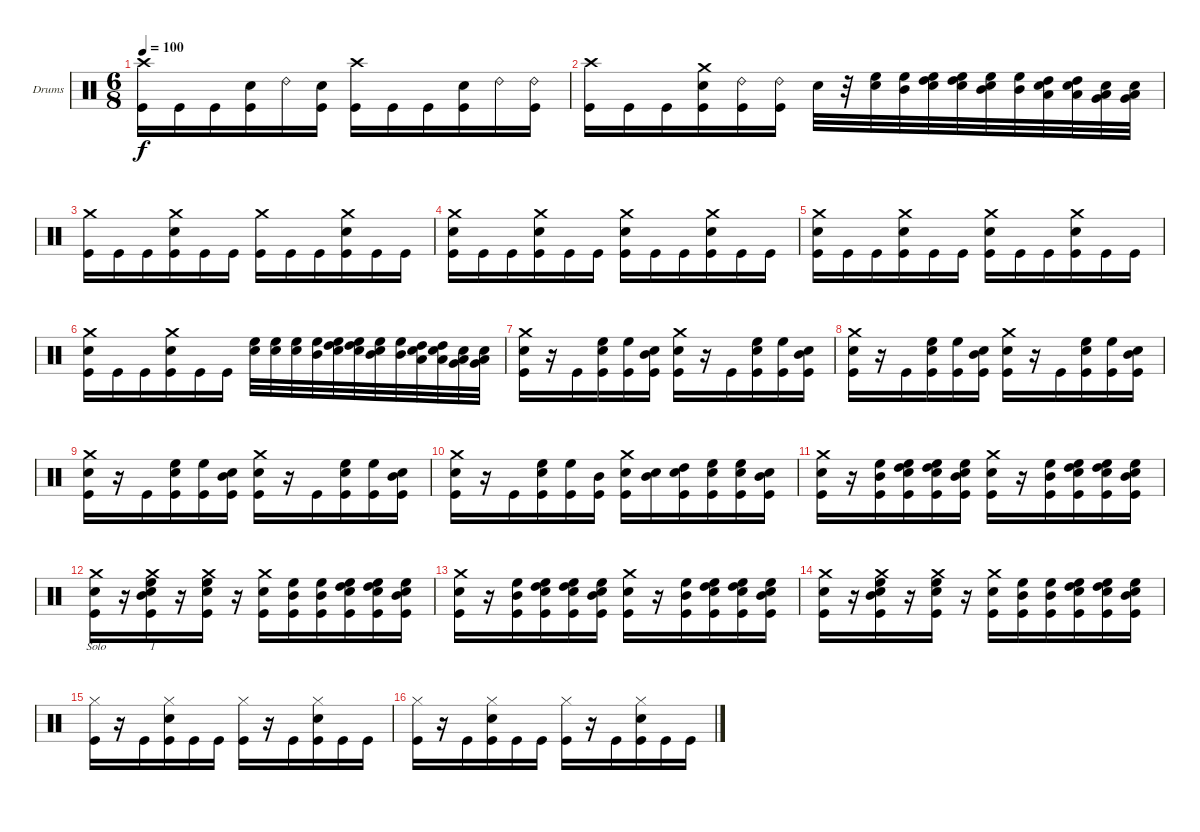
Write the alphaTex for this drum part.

\defaultSystemsLayout 4
\bracketExtendMode groupsimilarinstruments
\firstSystemTrackNameOrientation horizontal
\otherSystemsTrackNameOrientation horizontal
\track ("Drumkit" "Drums") {instrument percussion}
\staff {score}
\articulation defaults
\ts (6 8)
\tempo 100
\clef neutral
\scale
0.333333
\ks c
("Crash high (hit)" "Kick (hit)").16{lyrics (0 "") lyrics (1 "") lyrics (2 "") lyrics (3 "") lyrics (4 "") dy f} "Kick (hit)".16{lyrics (0 "") lyrics (1 "") lyrics (2 "") lyrics (3 "") lyrics (4 "")} "Kick (hit)".16 ("Snare (hit) 2" "Kick (hit)").16 "Ride (bell) 2".16 ("Snare (hit) 2" "Kick (hit)").16 ("Crash high (hit)" "Kick (hit)").16 "Kick (hit)".16 "Kick (hit)".16 ("Snare (hit) 2" "Kick (hit)").16 "Ride (bell) 2".16 ("Ride (bell) 2" "Kick (hit)").16 |
\scale
0.333333 ("Crash high (hit)" "Kick (hit)").16{lyrics (0 "") lyrics (1 "") lyrics (2 "") lyrics (3 "") lyrics (4 "")} "Kick (hit)".16{lyrics (0 "") lyrics (1 "") lyrics (2 "") lyrics (3 "") lyrics (4 "")} "Kick (hit)".16 ("Crash medium (hit)" "Snare (hit) 2" "Kick (hit)").16 ("Ride (bell) 2" "Kick (hit)").16 ("Ride (bell) 2" "Kick (hit)").16 "Snare (hit) 2".32 r.32 ("High Floor Tom (hit)" "Snare (hit) 2").32 ("High Floor Tom (hit)" "Mid Tom (hit)").32 ("High Floor Tom (hit)" "High Tom (hit)" "Snare (hit) 2").32 ("High Floor Tom (hit)" "High Tom (hit)" "Snare (hit) 2").32 ("High Floor Tom (hit)" "Mid Tom (hit)" "Snare (hit) 2").32 ("High Floor Tom (hit)" "Mid Tom (hit)").32 ("High Tom (hit)" "Low Tom (hit)" "Snare (hit) 2").32 ("High Tom (hit)" "Low Tom (hit)" "Snare (hit) 2").32 ("Low Tom (hit)" "Very Low Tom (hit)" "Snare (hit) 2").32 ("Low Tom (hit)" "Very Low Tom (hit)" "Snare (hit) 2").32 |
\scale
0.333333 ("Crash medium (hit)" "Kick (hit)").16{lyrics (0 "") lyrics (1 "") lyrics (2 "") lyrics (3 "") lyrics (4 "")} "Kick (hit)".16{lyrics (0 "") lyrics (1 "") lyrics (2 "") lyrics (3 "") lyrics (4 "")} "Kick (hit)".16 ("Crash medium (hit)" "Snare (hit) 2" "Kick (hit)").16 "Kick (hit)".16 "Kick (hit)".16 ("Crash medium (hit)" "Kick (hit)").16 "Kick (hit)".16 "Kick (hit)".16 ("Crash medium (hit)" "Snare (hit) 2" "Kick (hit)").16 "Kick (hit)".16 "Kick (hit)".16 |
\scale
0.333333 ("Crash medium (hit)" "Snare (hit) 2" "Kick (hit)").16{lyrics (0 "") lyrics (1 "") lyrics (2 "") lyrics (3 "") lyrics (4 "")} "Kick (hit)".16{lyrics (0 "") lyrics (1 "") lyrics (2 "") lyrics (3 "") lyrics (4 "")} "Kick (hit)".16 ("Crash medium (hit)" "Snare (hit) 2" "Kick (hit)").16 "Kick (hit)".16 "Kick (hit)".16 ("Crash medium (hit)" "Snare (hit) 2" "Kick (hit)").16 "Kick (hit)".16 "Kick (hit)".16 ("Crash medium (hit)" "Snare (hit) 2" "Kick (hit)").16 "Kick (hit)".16 "Kick (hit)".16 |
\scale
0.333333 ("Crash medium (hit)" "Snare (hit) 2" "Kick (hit)").16{lyrics (0 "") lyrics (1 "") lyrics (2 "") lyrics (3 "") lyrics (4 "")} "Kick (hit)".16{lyrics (0 "") lyrics (1 "") lyrics (2 "") lyrics (3 "") lyrics (4 "")} "Kick (hit)".16 ("Crash medium (hit)" "Snare (hit) 2" "Kick (hit)").16 "Kick (hit)".16 "Kick (hit)".16 ("Crash medium (hit)" "Snare (hit) 2" "Kick (hit)").16 "Kick (hit)".16 "Kick (hit)".16 ("Crash medium (hit)" "Snare (hit) 2" "Kick (hit)").16 "Kick (hit)".16 "Kick (hit)".16 |
\scale
0.333333 ("Crash medium (hit)" "Snare (hit) 2" "Kick (hit)").16{lyrics (0 "") lyrics (1 "") lyrics (2 "") lyrics (3 "") lyrics (4 "")} "Kick (hit)".16{lyrics (0 "") lyrics (1 "") lyrics (2 "") lyrics (3 "") lyrics (4 "")} "Kick (hit)".16 ("Crash medium (hit)" "Snare (hit) 2" "Kick (hit)").16 "Kick (hit)".16 "Kick (hit)".16 ("High Floor Tom (hit)" "Snare (hit) 2").32 ("High Floor Tom (hit)" "Snare (hit) 2").32 ("High Floor Tom (hit)" "Snare (hit) 2").32 ("High Floor Tom (hit)" "Mid Tom (hit)").32 ("High Floor Tom (hit)" "High Tom (hit)" "Snare (hit) 2").32 ("High Floor Tom (hit)" "High Tom (hit)" "Snare (hit) 2").32 ("High Floor Tom (hit)" "Mid Tom (hit)" "Snare (hit) 2").32 ("High Floor Tom (hit)" "Mid Tom (hit)").32 ("High Tom (hit)" "Low Tom (hit)" "Snare (hit) 2").32 ("High Tom (hit)" "Low Tom (hit)" "Snare (hit) 2").32 ("Low Tom (hit)" "Very Low Tom (hit)" "Snare (hit) 2").32 ("Low Tom (hit)" "Very Low Tom (hit)" "Snare (hit) 2").32 |
\scale
0.333333 ("Kick (hit)" "Snare (hit) 2" "Crash medium (hit)").16{lyrics (0 "") lyrics (1 "") lyrics (2 "") lyrics (3 "") lyrics (4 "")} r.16 "Kick (hit)".16{lyrics (0 "") lyrics (1 "") lyrics (2 "") lyrics (3 "") lyrics (4 "")} ("Kick (hit)" "High Floor Tom (hit)" "Snare (hit) 2").16 ("Kick (hit)" "High Floor Tom (hit)").16 ("Kick (hit)" "Snare (hit) 2" "Mid Tom (hit)").16 ("Kick (hit)" "Snare (hit) 2" "Crash medium (hit)").16 r.16 "Kick (hit)".16 ("Kick (hit)" "High Floor Tom (hit)" "Snare (hit) 2").16 ("Kick (hit)" "High Floor Tom (hit)").16 ("Kick (hit)" "Snare (hit) 2" "Mid Tom (hit)").16 |
\scale
0.333333 ("Kick (hit)" "Snare (hit) 2" "Crash medium (hit)").16{lyrics (0 "") lyrics (1 "") lyrics (2 "") lyrics (3 "") lyrics (4 "")} r.16 "Kick (hit)".16{lyrics (0 "") lyrics (1 "") lyrics (2 "") lyrics (3 "") lyrics (4 "")} ("Kick (hit)" "High Floor Tom (hit)" "Snare (hit) 2").16 ("Kick (hit)" "High Floor Tom (hit)").16 ("Kick (hit)" "Snare (hit) 2" "Mid Tom (hit)").16 ("Kick (hit)" "Snare (hit) 2" "Crash medium (hit)").16 r.16 "Kick (hit)".16 ("Kick (hit)" "High Floor Tom (hit)" "Snare (hit) 2").16 ("Kick (hit)" "High Floor Tom (hit)").16 ("Kick (hit)" "Snare (hit) 2" "Mid Tom (hit)").16 |
\scale
0.333333 ("Kick (hit)" "Snare (hit) 2" "Crash medium (hit)").16{lyrics (0 "") lyrics (1 "") lyrics (2 "") lyrics (3 "") lyrics (4 "")} r.16 "Kick (hit)".16{lyrics (0 "") lyrics (1 "") lyrics (2 "") lyrics (3 "") lyrics (4 "")} ("Kick (hit)" "High Floor Tom (hit)" "Snare (hit) 2").16 ("Kick (hit)" "High Floor Tom (hit)").16 ("Kick (hit)" "Snare (hit) 2" "Mid Tom (hit)").16 ("Kick (hit)" "Snare (hit) 2" "Crash medium (hit)").16 r.16 "Kick (hit)".16 ("Kick (hit)" "High Floor Tom (hit)" "Snare (hit) 2").16 ("Kick (hit)" "High Floor Tom (hit)").16 ("Kick (hit)" "Snare (hit) 2" "Mid Tom (hit)").16 |
\scale
0.333333 ("Kick (hit)" "Snare (hit) 2" "Crash medium (hit)").16{lyrics (0 "") lyrics (1 "") lyrics (2 "") lyrics (3 "") lyrics (4 "")} r.16 "Kick (hit)".16{lyrics (0 "") lyrics (1 "") lyrics (2 "") lyrics (3 "") lyrics (4 "")} ("Kick (hit)" "High Floor Tom (hit)" "Snare (hit) 2").16 ("Kick (hit)" "High Floor Tom (hit)").16 ("Kick (hit)" "Mid Tom (hit)").16 ("Kick (hit)" "Snare (hit) 2" "Crash medium (hit)").16 ("Mid Tom (hit)" "Snare (hit) 2").16 ("Kick (hit)" "High Tom (hit)" "Snare (hit) 2").16 ("Kick (hit)" "High Floor Tom (hit)" "Snare (hit) 2").16 ("Kick (hit)" "High Floor Tom (hit)" "Snare (hit) 2").16 ("Kick (hit)" "Mid Tom (hit)" "Snare (hit) 2").16 |
\scale
0.333333 ("Kick (hit)" "Snare (hit) 2" "Crash medium (hit)").16{lyrics (0 "") lyrics (1 "") lyrics (2 "") lyrics (3 "") lyrics (4 "")} r.16 ("Kick (hit)" "High Floor Tom (hit)" "Mid Tom (hit)").16{lyrics (0 "") lyrics (1 "") lyrics (2 "") lyrics (3 "") lyrics (4 "")} ("Kick (hit)" "High Floor Tom (hit)" "High Tom (hit)" "Snare (hit) 2").16 ("Kick (hit)" "High Floor Tom (hit)" "High Tom (hit)" "Snare (hit) 2").16 ("Kick (hit)" "High Floor Tom (hit)" "Mid Tom (hit)" "Snare (hit) 2").16 ("Kick (hit)" "Snare (hit) 2" "Crash medium (hit)").16 r.16 ("Kick (hit)" "High Floor Tom (hit)" "Mid Tom (hit)").16 ("Kick (hit)" "High Floor Tom (hit)" "High Tom (hit)" "Snare (hit) 2").16 ("Kick (hit)" "High Floor Tom (hit)" "High Tom (hit)" "Snare (hit) 2").16 ("Kick (hit)" "High Floor Tom (hit)" "Mid Tom (hit)" "Snare (hit) 2").16 |
\scale
0.333333 ("Kick (hit)" "Snare (hit) 2" "Crash medium (hit)").16{lyrics (0 "Solo") lyrics (1 "") lyrics (2 "") lyrics (3 "") lyrics (4 "")} r.16 ("Kick (hit)" "High Floor Tom (hit)" "Mid Tom (hit)" "Snare (hit) 2" "Crash medium (hit)").16{lyrics (0 "1") lyrics (1 "") lyrics (2 "") lyrics (3 "") lyrics (4 "")} r.16 ("Kick (hit)" "High Floor Tom (hit)" "Snare (hit) 2" "Crash medium (hit)").16 r.16 ("Kick (hit)" "Snare (hit) 2" "Crash medium (hit)").16 ("Kick (hit)" "High Floor Tom (hit)" "Mid Tom (hit)").16 ("Kick (hit)" "High Floor Tom (hit)" "Mid Tom (hit)").16 ("Kick (hit)" "High Floor Tom (hit)" "High Tom (hit)" "Snare (hit) 2").16 ("Kick (hit)" "High Floor Tom (hit)" "High Tom (hit)" "Snare (hit) 2").16 ("Kick (hit)" "High Floor Tom (hit)" "Mid Tom (hit)" "Snare (hit) 2").16 |
\scale
0.333333 ("Kick (hit)" "Snare (hit) 2" "Crash medium (hit)").16{lyrics (0 "") lyrics (1 "") lyrics (2 "") lyrics (3 "") lyrics (4 "")} r.16 ("Kick (hit)" "High Floor Tom (hit)" "Mid Tom (hit)").16{lyrics (0 "") lyrics (1 "") lyrics (2 "") lyrics (3 "") lyrics (4 "")} ("Kick (hit)" "High Floor Tom (hit)" "High Tom (hit)" "Snare (hit) 2").16 ("Kick (hit)" "High Floor Tom (hit)" "High Tom (hit)" "Snare (hit) 2").16 ("Kick (hit)" "High Floor Tom (hit)" "Mid Tom (hit)" "Snare (hit) 2").16 ("Kick (hit)" "Snare (hit) 2" "Crash medium (hit)").16 r.16 ("Kick (hit)" "High Floor Tom (hit)" "Mid Tom (hit)").16 ("Kick (hit)" "High Floor Tom (hit)" "High Tom (hit)" "Snare (hit) 2").16 ("Kick (hit)" "High Floor Tom (hit)" "High Tom (hit)" "Snare (hit) 2").16 ("Kick (hit)" "High Floor Tom (hit)" "Mid Tom (hit)" "Snare (hit) 2").16 |
\scale
0.333333 ("Kick (hit)" "Snare (hit) 2" "Crash medium (hit)").16{lyrics (0 "") lyrics (1 "") lyrics (2 "") lyrics (3 "") lyrics (4 "")} r.16 ("Kick (hit)" "High Floor Tom (hit)" "Mid Tom (hit)" "Snare (hit) 2" "Crash medium (hit)").16{lyrics (0 "") lyrics (1 "") lyrics (2 "") lyrics (3 "") lyrics (4 "")} r.16 ("Kick (hit)" "High Floor Tom (hit)" "Snare (hit) 2" "Crash medium (hit)").16 r.16 ("Kick (hit)" "Snare (hit) 2" "Crash medium (hit)").16 ("Kick (hit)" "High Floor Tom (hit)" "Mid Tom (hit)").16 ("Kick (hit)" "High Floor Tom (hit)" "Mid Tom (hit)").16 ("Kick (hit)" "High Floor Tom (hit)" "High Tom (hit)" "Snare (hit) 2").16 ("Kick (hit)" "High Floor Tom (hit)" "High Tom (hit)" "Snare (hit) 2").16 ("Kick (hit)" "High Floor Tom (hit)" "Mid Tom (hit)" "Snare (hit) 2").16 |
\scale
0.333333 ("Kick (hit)" "Hi-Hat (closed)").16{lyrics (0 "") lyrics (1 "") lyrics (2 "") lyrics (3 "") lyrics (4 "")} r.16 "Kick (hit)".16{lyrics (0 "") lyrics (1 "") lyrics (2 "") lyrics (3 "") lyrics (4 "")} ("Kick (hit)" "Snare (hit) 2" "Hi-Hat (closed)").16 "Kick (hit)".16 "Kick (hit)".16 ("Kick (hit)" "Hi-Hat (closed)").16 r.16 "Kick (hit)".16 ("Kick (hit)" "Snare (hit) 2" "Hi-Hat (closed)").16 "Kick (hit)".16 "Kick (hit)".16 |
\scale
0.333333 ("Kick (hit)" "Hi-Hat (closed)").16{lyrics (0 "") lyrics (1 "") lyrics (2 "") lyrics (3 "") lyrics (4 "")} r.16 "Kick (hit)".16{lyrics (0 "") lyrics (1 "") lyrics (2 "") lyrics (3 "") lyrics (4 "")} ("Kick (hit)" "Snare (hit) 2" "Hi-Hat (closed)").16 "Kick (hit)".16 "Kick (hit)".16 ("Kick (hit)" "Hi-Hat (closed)").16 r.16 "Kick (hit)".16 ("Kick (hit)" "Snare (hit) 2" "Hi-Hat (closed)").16 "Kick (hit)".16 "Kick (hit)".16
